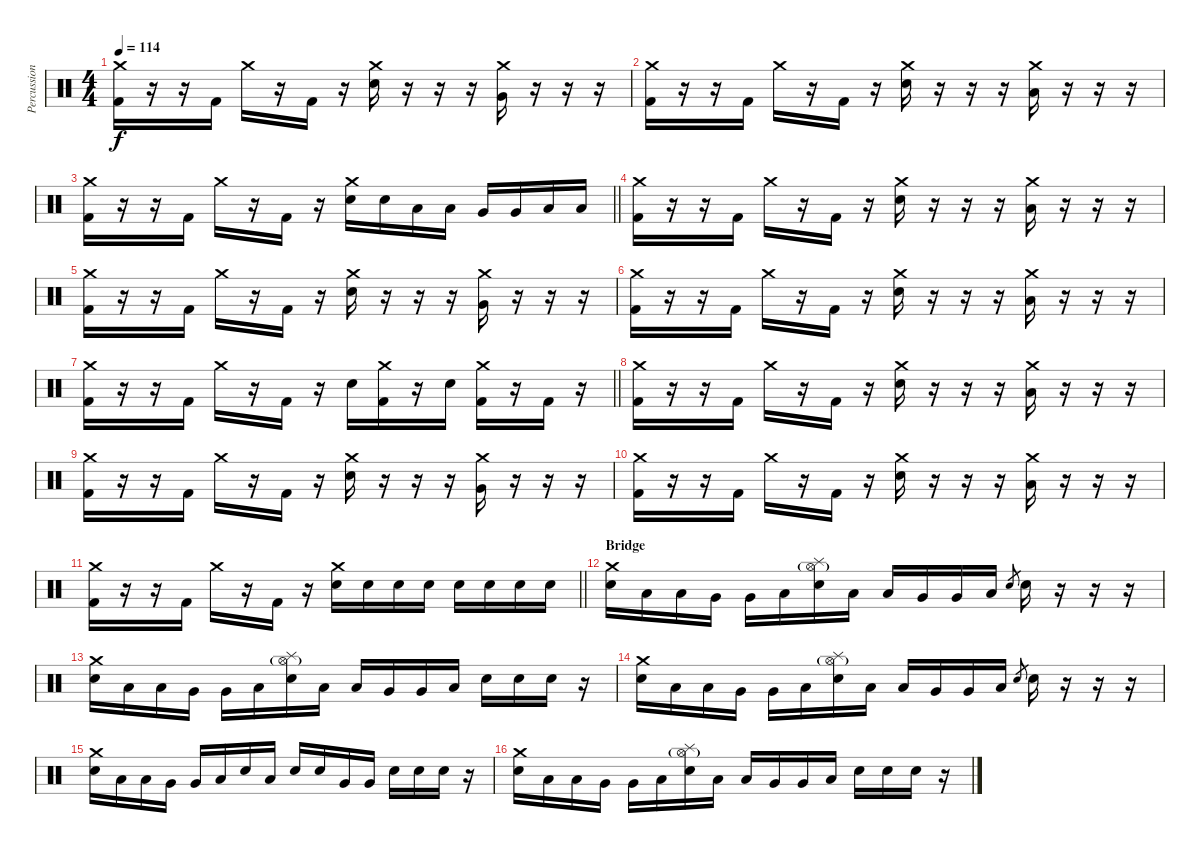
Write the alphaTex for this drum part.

\track ("Percussion" "Percussion") {instrument percussion}
\staff {score}
\articulation defaults
\ts (4 4)
\tempo 114
\clef neutral
\ks c
("Crash medium (hit)" "Kick (hit) 2").16{dy f} r.16 r.16 "Kick (hit) 2".16 "Crash medium (hit)".16 r.16 "Kick (hit) 2".16 r.16 ("Crash medium (hit)" "Electric Snare (hit)").16 r.16 r.16 r.16 ("Very Low Tom (hit)" "Crash medium (hit)").16 r.16 r.16 r.16 |
("Crash medium (hit)" "Kick (hit) 2").16 r.16 r.16 "Kick (hit) 2".16 "Crash medium (hit)".16 r.16 "Kick (hit) 2".16 r.16 ("Crash medium (hit)" "Electric Snare (hit)").16 r.16 r.16 r.16 ("Low Floor Tom (hit)" "Crash medium (hit)").16 r.16 r.16 r.16 |
\barLineRight lightlight
("Crash medium (hit)" "Kick (hit) 2").16 r.16 r.16 "Kick (hit) 2".16 "Crash medium (hit)".16 r.16 "Kick (hit) 2".16 r.16 ("Crash medium (hit)" "Electric Snare (hit)").16 "Electric Snare (hit)".16 "Low Tom (hit)".16 "Low Tom (hit)".16 "Very Low Tom (hit)".16 "Very Low Tom (hit)".16 "Low Floor Tom (hit)".16 "Low Floor Tom (hit)".16 |
("Crash medium (hit)" "Kick (hit) 2").16 r.16 r.16 "Kick (hit) 2".16 "Crash medium (hit)".16 r.16 "Kick (hit) 2".16 r.16 ("Crash medium (hit)" "Electric Snare (hit)").16 r.16 r.16 r.16 ("Crash medium (hit)" "Low Tom (hit)").16 r.16 r.16 r.16 |
("Crash medium (hit)" "Kick (hit) 2").16 r.16 r.16 "Kick (hit) 2".16 "Crash medium (hit)".16 r.16 "Kick (hit) 2".16 r.16 ("Crash medium (hit)" "Electric Snare (hit)").16 r.16 r.16 r.16 ("Crash medium (hit)" "Very Low Tom (hit)").16 r.16 r.16 r.16 |
("Crash medium (hit)" "Kick (hit) 2").16 r.16 r.16 "Kick (hit) 2".16 "Crash medium (hit)".16 r.16 "Kick (hit) 2".16 r.16 ("Crash medium (hit)" "Electric Snare (hit)").16 r.16 r.16 r.16 ("Low Floor Tom (hit)" "Crash medium (hit)").16 r.16 r.16 r.16 |
\barLineRight lightlight
("Crash medium (hit)" "Kick (hit) 2").16 r.16 r.16 "Kick (hit) 2".16 "Crash medium (hit)".16 r.16 "Kick (hit) 2".16 r.16 "Electric Snare (hit)".16 ("Crash medium (hit)" "Kick (hit) 2").16 r.16 "Electric Snare (hit)".16 ("Crash medium (hit)" "Kick (hit) 2").16 r.16 "Kick (hit) 2".16 r.16 |
("Crash medium (hit)" "Kick (hit) 2").16 r.16 r.16 "Kick (hit) 2".16 "Crash medium (hit)".16 r.16 "Kick (hit) 2".16 r.16 ("Crash medium (hit)" "Electric Snare (hit)").16 r.16 r.16 r.16 ("Crash medium (hit)" "Low Tom (hit)").16 r.16 r.16 r.16 |
("Crash medium (hit)" "Kick (hit) 2").16 r.16 r.16 "Kick (hit) 2".16 "Crash medium (hit)".16 r.16 "Kick (hit) 2".16 r.16 ("Crash medium (hit)" "Electric Snare (hit)").16 r.16 r.16 r.16 ("Crash medium (hit)" "Very Low Tom (hit)").16 r.16 r.16 r.16 |
("Crash medium (hit)" "Kick (hit) 2").16 r.16 r.16 "Kick (hit) 2".16 "Crash medium (hit)".16 r.16 "Kick (hit) 2".16 r.16 ("Crash medium (hit)" "Electric Snare (hit)").16 r.16 r.16 r.16 ("Low Floor Tom (hit)" "Crash medium (hit)").16 r.16 r.16 r.16 |
\barLineRight lightlight
("Crash medium (hit)" "Kick (hit) 2").16 r.16 r.16 "Kick (hit) 2".16 "Crash medium (hit)".16 r.16 "Kick (hit) 2".16 r.16 ("Crash medium (hit)" "Electric Snare (hit)").16 "Electric Snare (hit)".16 "Electric Snare (hit)".16 "Electric Snare (hit)".16 "Electric Snare (hit)".16 "Electric Snare (hit)".16 "Electric Snare (hit)".16 "Electric Snare (hit)".16 |
\section ("" "Bridge ")
("Crash medium (hit)" "Electric Snare (hit)").16 "Low Tom (hit)".16 "Low Tom (hit)".16 "Very Low Tom (hit)".16 "Very Low Tom (hit)".16 "Low Floor Tom (hit)".16 ("Hi-Hat (open)"{g} "Splash (hit)" "Electric Snare (hit)").16 "Low Tom (hit)".16 "Low Tom (hit)".16 "Very Low Tom (hit)".16 "Very Low Tom (hit)".16 "Low Floor Tom (hit)".16 "Electric Snare (hit)".8{gr} "Electric Snare (hit)".16 r.16 r.16 r.16 |
("Crash medium (hit)" "Electric Snare (hit)").16 "Low Tom (hit)".16 "Low Tom (hit)".16 "Very Low Tom (hit)".16 "Very Low Tom (hit)".16 "Low Floor Tom (hit)".16 ("Hi-Hat (open)"{g} "Splash (hit)" "Electric Snare (hit)").16 "Low Tom (hit)".16 "Low Tom (hit)".16 "Very Low Tom (hit)".16 "Very Low Tom (hit)".16 "Low Floor Tom (hit)".16 "Electric Snare (hit)".16 "Electric Snare (hit)".16 "Electric Snare (hit)".16 r.16 |
("Crash medium (hit)" "Electric Snare (hit)").16 "Low Tom (hit)".16 "Low Tom (hit)".16 "Very Low Tom (hit)".16 "Very Low Tom (hit)".16 "Low Floor Tom (hit)".16 ("Hi-Hat (open)"{g} "Splash (hit)" "Electric Snare (hit)").16 "Low Tom (hit)".16 "Low Tom (hit)".16 "Very Low Tom (hit)".16 "Very Low Tom (hit)".16 "Low Floor Tom (hit)".16 "Electric Snare (hit)".8{gr} "Electric Snare (hit)".16 r.16 r.16 r.16 |
("Crash medium (hit)" "Electric Snare (hit)").16 "Low Tom (hit)".16 "Low Tom (hit)".16 "Very Low Tom (hit)".16 "Very Low Tom (hit)".16 "Low Floor Tom (hit)".16 "Electric Snare (hit)".16 "Low Floor Tom (hit)".16 "Electric Snare (hit)".16 "Electric Snare (hit)".16 "Very Low Tom (hit)".16 "Very Low Tom (hit)".16 "Electric Snare (hit)".16 "Electric Snare (hit)".16 "Electric Snare (hit)".16 r.16 |
("Crash medium (hit)" "Electric Snare (hit)").16 "Low Tom (hit)".16 "Low Tom (hit)".16 "Very Low Tom (hit)".16 "Very Low Tom (hit)".16 "Low Floor Tom (hit)".16 ("Hi-Hat (open)"{g} "Splash (hit)" "Electric Snare (hit)").16 "Low Tom (hit)".16 "Low Tom (hit)".16 "Very Low Tom (hit)".16 "Very Low Tom (hit)".16 "Low Floor Tom (hit)".16 "Electric Snare (hit)".16 "Electric Snare (hit)".16 "Electric Snare (hit)".16 r.16
